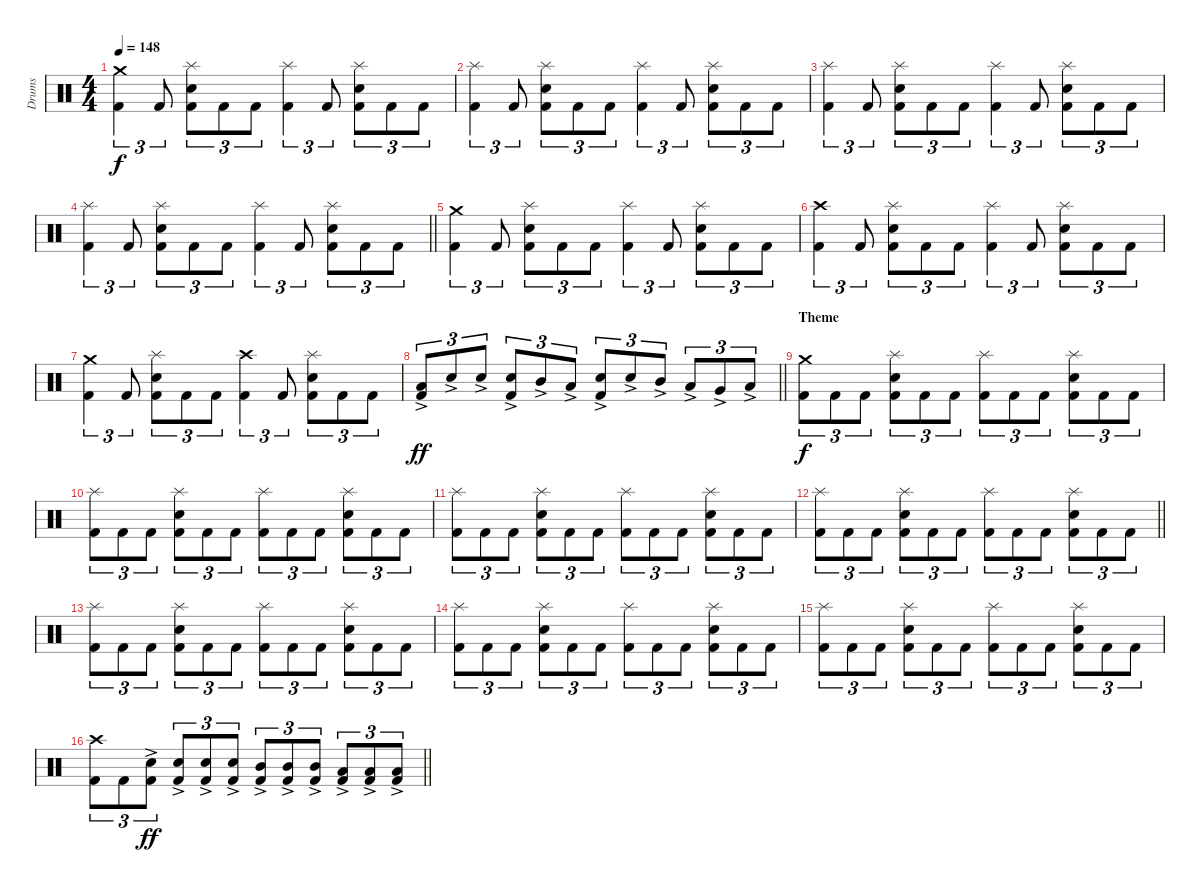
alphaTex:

\track ("Drums" "Drums") {instrument percussion}
\staff {score}
\articulation defaults
\ts (4 4)
\section ("" "")
\tempo 148
\clef neutral
\ks c
("Kick (hit) 2" "Crash medium (hit)").4{tu (3 2) dy f} "Kick (hit) 2".8{tu (3 2)} ("Kick (hit) 2" "Snare (hit) 2" "Splash (hit)").8{tu (3 2)} "Kick (hit) 2".8{tu (3 2)} "Kick (hit) 2".8{tu (3 2)} ("Kick (hit) 2" "Splash (hit)").4{tu (3 2)} "Kick (hit) 2".8{tu (3 2)} ("Kick (hit) 2" "Snare (hit) 2" "Splash (hit)").8{tu (3 2)} "Kick (hit) 2".8{tu (3 2)} "Kick (hit) 2".8{tu (3 2)} |
("Kick (hit) 2" "Splash (hit)").4{tu (3 2)} "Kick (hit) 2".8{tu (3 2)} ("Kick (hit) 2" "Snare (hit) 2" "Splash (hit)").8{tu (3 2)} "Kick (hit) 2".8{tu (3 2)} "Kick (hit) 2".8{tu (3 2)} ("Kick (hit) 2" "Splash (hit)").4{tu (3 2)} "Kick (hit) 2".8{tu (3 2)} ("Kick (hit) 2" "Snare (hit) 2" "Splash (hit)").8{tu (3 2)} "Kick (hit) 2".8{tu (3 2)} "Kick (hit) 2".8{tu (3 2)} |
("Kick (hit) 2" "Splash (hit)").4{tu (3 2)} "Kick (hit) 2".8{tu (3 2)} ("Kick (hit) 2" "Snare (hit) 2" "Splash (hit)").8{tu (3 2)} "Kick (hit) 2".8{tu (3 2)} "Kick (hit) 2".8{tu (3 2)} ("Kick (hit) 2" "Splash (hit)").4{tu (3 2)} "Kick (hit) 2".8{tu (3 2)} ("Kick (hit) 2" "Snare (hit) 2" "Splash (hit)").8{tu (3 2)} "Kick (hit) 2".8{tu (3 2)} "Kick (hit) 2".8{tu (3 2)} |
\barLineRight lightlight
("Kick (hit) 2" "Splash (hit)").4{tu (3 2)} "Kick (hit) 2".8{tu (3 2)} ("Kick (hit) 2" "Snare (hit) 2" "Splash (hit)").8{tu (3 2)} "Kick (hit) 2".8{tu (3 2)} "Kick (hit) 2".8{tu (3 2)} ("Kick (hit) 2" "Splash (hit)").4{tu (3 2)} "Kick (hit) 2".8{tu (3 2)} ("Kick (hit) 2" "Snare (hit) 2" "Splash (hit)").8{tu (3 2)} "Kick (hit) 2".8{tu (3 2)} "Kick (hit) 2".8{tu (3 2)} |
\section ("" "")
("Kick (hit) 2" "Crash medium (hit)").4{tu (3 2)} "Kick (hit) 2".8{tu (3 2)} ("Kick (hit) 2" "Snare (hit) 2" "Splash (hit)").8{tu (3 2)} "Kick (hit) 2".8{tu (3 2)} "Kick (hit) 2".8{tu (3 2)} ("Kick (hit) 2" "Splash (hit)").4{tu (3 2)} "Kick (hit) 2".8{tu (3 2)} ("Kick (hit) 2" "Snare (hit) 2" "Splash (hit)").8{tu (3 2)} "Kick (hit) 2".8{tu (3 2)} "Kick (hit) 2".8{tu (3 2)} |
("Kick (hit) 2" "Crash high (hit)").4{tu (3 2)} "Kick (hit) 2".8{tu (3 2)} ("Kick (hit) 2" "Snare (hit) 2" "Splash (hit)").8{tu (3 2)} "Kick (hit) 2".8{tu (3 2)} "Kick (hit) 2".8{tu (3 2)} ("Kick (hit) 2" "Splash (hit)").4{tu (3 2)} "Kick (hit) 2".8{tu (3 2)} ("Kick (hit) 2" "Snare (hit) 2" "Splash (hit)").8{tu (3 2)} "Kick (hit) 2".8{tu (3 2)} "Kick (hit) 2".8{tu (3 2)} |
("Kick (hit) 2" "Crash medium (hit)").4{tu (3 2)} "Kick (hit) 2".8{tu (3 2)} ("Kick (hit) 2" "Snare (hit) 2" "Splash (hit)").8{tu (3 2)} "Kick (hit) 2".8{tu (3 2)} "Kick (hit) 2".8{tu (3 2)} ("Kick (hit) 2" "Crash high (hit)").4{tu (3 2)} "Kick (hit) 2".8{tu (3 2)} ("Kick (hit) 2" "Snare (hit) 2" "Splash (hit)").8{tu (3 2)} "Kick (hit) 2".8{tu (3 2)} "Kick (hit) 2".8{tu (3 2)} |
\barLineRight lightlight
("Kick (hit) 2"{ac} "Low Floor Tom (hit)"{ac}).8{tu (3 2) dy ff} "Snare (hit) 2"{ac}.8{tu (3 2)} "Snare (hit) 2"{ac}.8{tu (3 2)} ("Kick (hit) 2"{ac} "Snare (hit) 2"{ac}).8{tu (3 2)} "Mid Tom (hit)"{ac}.8{tu (3 2)} "Low Tom (hit)"{ac}.8{tu (3 2)} ("Kick (hit) 2"{ac} "Snare (hit) 2"{ac}).8{tu (3 2)} "Snare (hit) 2"{ac}.8{tu (3 2)} "Mid Tom (hit)"{ac}.8{tu (3 2)} "Low Tom (hit)"{ac}.8{tu (3 2)} "Very Low Tom (hit)"{ac}.8{tu (3 2)} "Low Floor Tom (hit)"{ac}.8{tu (3 2)} |
\section ("" "Theme")
("Kick (hit) 2" "Crash medium (hit)").8{tu (3 2) dy f} "Kick (hit) 2".8{tu (3 2)} "Kick (hit) 2".8{tu (3 2)} ("Kick (hit) 2" "Snare (hit) 2" "Splash (hit)").8{tu (3 2)} "Kick (hit) 2".8{tu (3 2)} "Kick (hit) 2".8{tu (3 2)} ("Kick (hit) 2" "Splash (hit)").8{tu (3 2)} "Kick (hit) 2".8{tu (3 2)} "Kick (hit) 2".8{tu (3 2)} ("Kick (hit) 2" "Snare (hit) 2" "Splash (hit)").8{tu (3 2)} "Kick (hit) 2".8{tu (3 2)} "Kick (hit) 2".8{tu (3 2)} |
("Kick (hit) 2" "Splash (hit)").8{tu (3 2)} "Kick (hit) 2".8{tu (3 2)} "Kick (hit) 2".8{tu (3 2)} ("Kick (hit) 2" "Snare (hit) 2" "Splash (hit)").8{tu (3 2)} "Kick (hit) 2".8{tu (3 2)} "Kick (hit) 2".8{tu (3 2)} ("Kick (hit) 2" "Splash (hit)").8{tu (3 2)} "Kick (hit) 2".8{tu (3 2)} "Kick (hit) 2".8{tu (3 2)} ("Kick (hit) 2" "Snare (hit) 2" "Splash (hit)").8{tu (3 2)} "Kick (hit) 2".8{tu (3 2)} "Kick (hit) 2".8{tu (3 2)} |
("Kick (hit) 2" "Splash (hit)").8{tu (3 2)} "Kick (hit) 2".8{tu (3 2)} "Kick (hit) 2".8{tu (3 2)} ("Kick (hit) 2" "Snare (hit) 2" "Splash (hit)").8{tu (3 2)} "Kick (hit) 2".8{tu (3 2)} "Kick (hit) 2".8{tu (3 2)} ("Kick (hit) 2" "Splash (hit)").8{tu (3 2)} "Kick (hit) 2".8{tu (3 2)} "Kick (hit) 2".8{tu (3 2)} ("Kick (hit) 2" "Snare (hit) 2" "Splash (hit)").8{tu (3 2)} "Kick (hit) 2".8{tu (3 2)} "Kick (hit) 2".8{tu (3 2)} |
\barLineRight lightlight
("Kick (hit) 2" "Splash (hit)").8{tu (3 2)} "Kick (hit) 2".8{tu (3 2)} "Kick (hit) 2".8{tu (3 2)} ("Kick (hit) 2" "Snare (hit) 2" "Splash (hit)").8{tu (3 2)} "Kick (hit) 2".8{tu (3 2)} "Kick (hit) 2".8{tu (3 2)} ("Kick (hit) 2" "Splash (hit)").8{tu (3 2)} "Kick (hit) 2".8{tu (3 2)} "Kick (hit) 2".8{tu (3 2)} ("Kick (hit) 2" "Snare (hit) 2" "Splash (hit)").8{tu (3 2)} "Kick (hit) 2".8{tu (3 2)} "Kick (hit) 2".8{tu (3 2)} |
\section ("" "")
("Kick (hit) 2" "Splash (hit)").8{tu (3 2)} "Kick (hit) 2".8{tu (3 2)} "Kick (hit) 2".8{tu (3 2)} ("Kick (hit) 2" "Snare (hit) 2" "Splash (hit)").8{tu (3 2)} "Kick (hit) 2".8{tu (3 2)} "Kick (hit) 2".8{tu (3 2)} ("Kick (hit) 2" "Splash (hit)").8{tu (3 2)} "Kick (hit) 2".8{tu (3 2)} "Kick (hit) 2".8{tu (3 2)} ("Kick (hit) 2" "Snare (hit) 2" "Splash (hit)").8{tu (3 2)} "Kick (hit) 2".8{tu (3 2)} "Kick (hit) 2".8{tu (3 2)} |
("Kick (hit) 2" "Splash (hit)").8{tu (3 2)} "Kick (hit) 2".8{tu (3 2)} "Kick (hit) 2".8{tu (3 2)} ("Kick (hit) 2" "Snare (hit) 2" "Splash (hit)").8{tu (3 2)} "Kick (hit) 2".8{tu (3 2)} "Kick (hit) 2".8{tu (3 2)} ("Kick (hit) 2" "Splash (hit)").8{tu (3 2)} "Kick (hit) 2".8{tu (3 2)} "Kick (hit) 2".8{tu (3 2)} ("Kick (hit) 2" "Snare (hit) 2" "Splash (hit)").8{tu (3 2)} "Kick (hit) 2".8{tu (3 2)} "Kick (hit) 2".8{tu (3 2)} |
("Kick (hit) 2" "Splash (hit)").8{tu (3 2)} "Kick (hit) 2".8{tu (3 2)} "Kick (hit) 2".8{tu (3 2)} ("Kick (hit) 2" "Snare (hit) 2" "Splash (hit)").8{tu (3 2)} "Kick (hit) 2".8{tu (3 2)} "Kick (hit) 2".8{tu (3 2)} ("Kick (hit) 2" "Splash (hit)").8{tu (3 2)} "Kick (hit) 2".8{tu (3 2)} "Kick (hit) 2".8{tu (3 2)} ("Kick (hit) 2" "Snare (hit) 2" "Splash (hit)").8{tu (3 2)} "Kick (hit) 2".8{tu (3 2)} "Kick (hit) 2".8{tu (3 2)} |
\barLineRight lightlight
("Kick (hit) 2" "Crash high (hit)").8{tu (3 2)} "Kick (hit) 2".8{tu (3 2)} ("Kick (hit) 2" "Snare (hit) 2"{ac}).8{tu (3 2) dy ff} ("Kick (hit) 2" "Snare (hit) 2"{ac}).8{tu (3 2)} ("Kick (hit) 2" "Snare (hit) 2"{ac}).8{tu (3 2)} ("Kick (hit) 2" "Snare (hit) 2"{ac}).8{tu (3 2)} ("Kick (hit) 2" "Mid Tom (hit)"{ac}).8{tu (3 2)} ("Kick (hit) 2" "Mid Tom (hit)"{ac}).8{tu (3 2)} ("Kick (hit) 2" "Mid Tom (hit)"{ac}).8{tu (3 2)} ("Kick (hit) 2" "Low Tom (hit)"{ac}).8{tu (3 2)} ("Kick (hit) 2" "Low Tom (hit)"{ac}).8{tu (3 2)} ("Kick (hit) 2" "Low Tom (hit)"{ac}).8{tu (3 2)}
